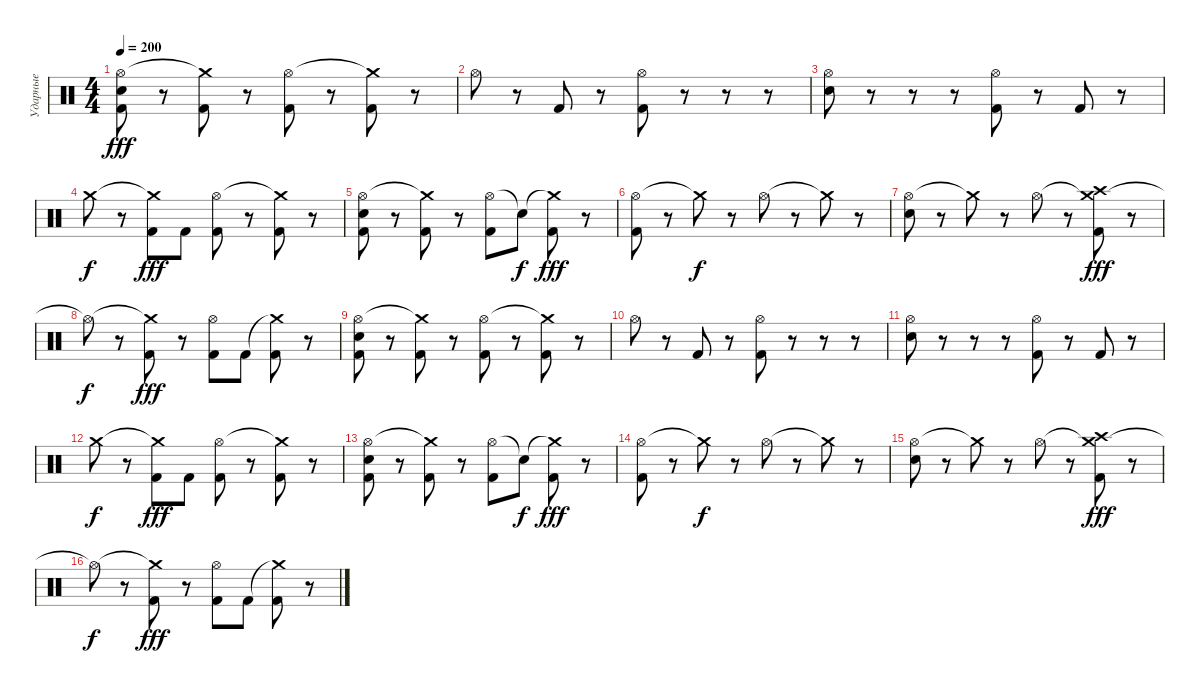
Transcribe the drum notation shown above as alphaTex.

\track ("Ударные" "Ударные") {instrument percussion}
\staff {score}
\articulation defaults
\ts (4 4)
\tempo 200
\clef neutral
\ks c
("Hi-Hat (open)" "Electric Snare (hit)" "Kick (hit) 2").8{dy fff} r.8 ("Crash medium (hit)"{t} "Kick (hit) 2").8 r.8 ("Hi-Hat (open)" "Kick (hit) 2").8 r.8 ("Crash medium (hit)"{t} "Kick (hit) 2").8 r.8 |
"Hi-Hat (open)".8 r.8 "Kick (hit) 2".8 r.8 ("Hi-Hat (open)" "Kick (hit) 2").8 r.8 r.8 r.8 |
("Hi-Hat (open)" "Electric Snare (hit)").8 r.8 r.8 r.8 ("Hi-Hat (open)" "Kick (hit) 2").8 r.8 "Kick (hit) 2".8 r.8 |
"Crash medium (hit)".8{dy f} r.8 ("Crash medium (hit)"{t} "Kick (hit) 2").8{dy fff} "Kick (hit) 2".8 ("Hi-Hat (open)" "Kick (hit) 2").8 r.8 ("Crash medium (hit)"{t} "Kick (hit) 2").8 r.8 |
("Hi-Hat (open)" "Electric Snare (hit)" "Kick (hit) 2").8 r.8 ("Crash medium (hit)"{t} "Kick (hit) 2").8 r.8 ("Hi-Hat (open)" "Kick (hit) 2").8 "Snare (hit)"{t}.8{dy f} ("Crash medium (hit)"{t} "Kick (hit) 2").8{dy fff} r.8 |
("Hi-Hat (open)" "Kick (hit) 2").8 r.8 "Crash medium (hit)"{t}.8{dy f} r.8 "Hi-Hat (open)".8 r.8 "Crash medium (hit)"{t}.8 r.8 |
("Hi-Hat (open)" "Electric Snare (hit)").8 r.8 "Crash medium (hit)"{t}.8 r.8 "Hi-Hat (open)".8 r.8 ("Crash medium (hit)"{t} "Crash high (hit)" "Kick (hit) 2").8{dy fff} r.8 |
"Hi-Hat (open)"{t}.8{dy f} r.8 ("Crash medium (hit)"{t} "Kick (hit) 2").8{dy fff} r.8 ("Hi-Hat (open)" "Kick (hit) 2").8 "Kick (hit) 2".8 ("Crash medium (hit)"{t} "Kick (hit) 2").8 r.8 |
("Hi-Hat (open)" "Electric Snare (hit)" "Kick (hit) 2").8 r.8 ("Crash medium (hit)"{t} "Kick (hit) 2").8 r.8 ("Hi-Hat (open)" "Kick (hit) 2").8 r.8 ("Crash medium (hit)"{t} "Kick (hit) 2").8 r.8 |
"Hi-Hat (open)".8 r.8 "Kick (hit) 2".8 r.8 ("Hi-Hat (open)" "Kick (hit) 2").8 r.8 r.8 r.8 |
("Hi-Hat (open)" "Electric Snare (hit)").8 r.8 r.8 r.8 ("Hi-Hat (open)" "Kick (hit) 2").8 r.8 "Kick (hit) 2".8 r.8 |
"Crash medium (hit)".8{dy f} r.8 ("Crash medium (hit)"{t} "Kick (hit) 2").8{dy fff} "Kick (hit) 2".8 ("Hi-Hat (open)" "Kick (hit) 2").8 r.8 ("Crash medium (hit)"{t} "Kick (hit) 2").8 r.8 |
("Hi-Hat (open)" "Electric Snare (hit)" "Kick (hit) 2").8 r.8 ("Crash medium (hit)"{t} "Kick (hit) 2").8 r.8 ("Hi-Hat (open)" "Kick (hit) 2").8 "Snare (hit)"{t}.8{dy f} ("Crash medium (hit)"{t} "Kick (hit) 2").8{dy fff} r.8 |
("Hi-Hat (open)" "Kick (hit) 2").8 r.8 "Crash medium (hit)"{t}.8{dy f} r.8 "Hi-Hat (open)".8 r.8 "Crash medium (hit)"{t}.8 r.8 |
("Hi-Hat (open)" "Electric Snare (hit)").8 r.8 "Crash medium (hit)"{t}.8 r.8 "Hi-Hat (open)".8 r.8 ("Crash medium (hit)"{t} "Crash high (hit)" "Kick (hit) 2").8{dy fff} r.8 |
"Hi-Hat (open)"{t}.8{dy f} r.8 ("Crash medium (hit)"{t} "Kick (hit) 2").8{dy fff} r.8 ("Hi-Hat (open)" "Kick (hit) 2").8 "Kick (hit) 2".8 ("Crash medium (hit)"{t} "Kick (hit) 2").8 r.8
